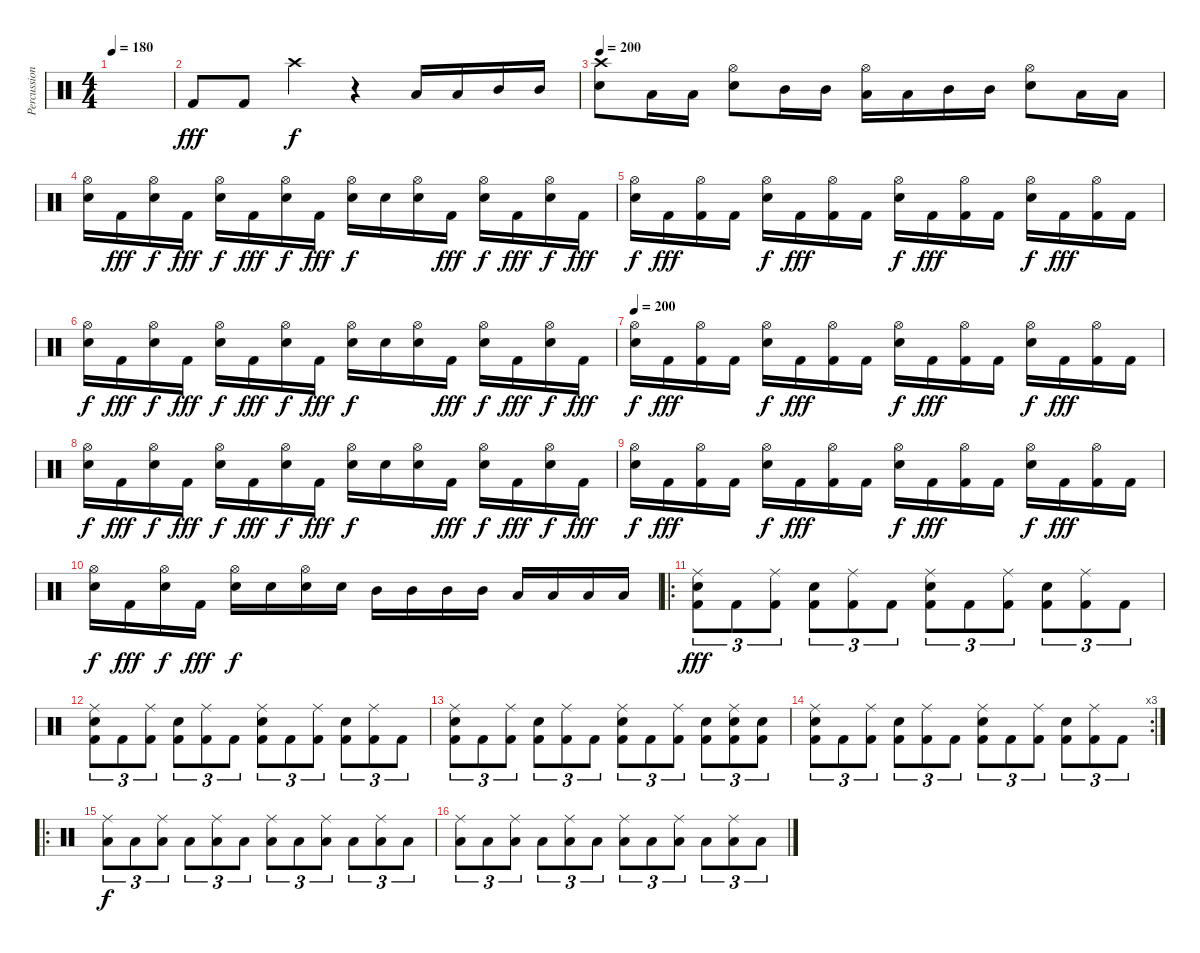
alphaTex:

\track ("Percussion" "Percussion") {instrument percussion}
\staff {score}
\articulation defaults
\ts (4 4)
\tempo 180
\clef neutral
\ks c
|
"Kick (hit) 2".8{dy fff} "Kick (hit) 2".8 "Crash high (hit)".4{dy f} r.4 "Low Tom (hit)".16 "Low Tom (hit)".16 "Mid Tom (hit)".16 "Mid Tom (hit)".16 |
\tempo 200
("Crash high (hit)" "Electric Snare (hit)").8 "Low Tom (hit)".16 "Low Tom (hit)".16 ("Hi-Hat (open)" "Electric Snare (hit)").8 "Mid Tom (hit)".16 "Mid Tom (hit)".16 ("Hi-Hat (open)" "Low Tom (hit)").16 "Low Tom (hit)".16 "Mid Tom (hit)".16 "Mid Tom (hit)".16 ("Hi-Hat (open)" "Electric Snare (hit)").8 "Low Tom (hit)".16 "Low Tom (hit)".16 |
("Hi-Hat (open)" "Electric Snare (hit)").16 "Kick (hit) 2".16{dy fff} ("Hi-Hat (open)" "Electric Snare (hit)").16{dy f} "Kick (hit) 2".16{dy fff} ("Hi-Hat (open)" "Electric Snare (hit)").16{dy f} "Kick (hit) 2".16{dy fff} ("Hi-Hat (open)" "Electric Snare (hit)").16{dy f} "Kick (hit) 2".16{dy fff} ("Hi-Hat (open)" "Electric Snare (hit)").16{dy f} "Electric Snare (hit)".16 ("Hi-Hat (open)" "Electric Snare (hit)").16 "Kick (hit) 2".16{dy fff} ("Hi-Hat (open)" "Electric Snare (hit)").16{dy f} "Kick (hit) 2".16{dy fff} ("Hi-Hat (open)" "Electric Snare (hit)").16{dy f} "Kick (hit) 2".16{dy fff} |
("Hi-Hat (open)" "Electric Snare (hit)").16{dy f} "Kick (hit) 2".16{dy fff} ("Hi-Hat (open)" "Kick (hit) 2").16 "Kick (hit) 2".16 ("Hi-Hat (open)" "Electric Snare (hit)").16{dy f} "Kick (hit) 2".16{dy fff} ("Hi-Hat (open)" "Kick (hit) 2").16 "Kick (hit) 2".16 ("Hi-Hat (open)" "Electric Snare (hit)").16{dy f} "Kick (hit) 2".16{dy fff} ("Hi-Hat (open)" "Kick (hit) 2").16 "Kick (hit) 2".16 ("Hi-Hat (open)" "Electric Snare (hit)").16{dy f} "Kick (hit) 2".16{dy fff} ("Hi-Hat (open)" "Kick (hit) 2").16 "Kick (hit) 2".16 |
("Hi-Hat (open)" "Electric Snare (hit)").16{dy f} "Kick (hit) 2".16{dy fff} ("Hi-Hat (open)" "Electric Snare (hit)").16{dy f} "Kick (hit) 2".16{dy fff} ("Hi-Hat (open)" "Electric Snare (hit)").16{dy f} "Kick (hit) 2".16{dy fff} ("Hi-Hat (open)" "Electric Snare (hit)").16{dy f} "Kick (hit) 2".16{dy fff} ("Hi-Hat (open)" "Electric Snare (hit)").16{dy f} "Electric Snare (hit)".16 ("Hi-Hat (open)" "Electric Snare (hit)").16 "Kick (hit) 2".16{dy fff} ("Hi-Hat (open)" "Electric Snare (hit)").16{dy f} "Kick (hit) 2".16{dy fff} ("Hi-Hat (open)" "Electric Snare (hit)").16{dy f} "Kick (hit) 2".16{dy fff} |
\tempo 200
("Hi-Hat (open)" "Electric Snare (hit)").16{dy f} "Kick (hit) 2".16{dy fff} ("Hi-Hat (open)" "Kick (hit) 2").16 "Kick (hit) 2".16 ("Hi-Hat (open)" "Electric Snare (hit)").16{dy f} "Kick (hit) 2".16{dy fff} ("Hi-Hat (open)" "Kick (hit) 2").16 "Kick (hit) 2".16 ("Hi-Hat (open)" "Electric Snare (hit)").16{dy f} "Kick (hit) 2".16{dy fff} ("Hi-Hat (open)" "Kick (hit) 2").16 "Kick (hit) 2".16 ("Hi-Hat (open)" "Electric Snare (hit)").16{dy f} "Kick (hit) 2".16{dy fff} ("Hi-Hat (open)" "Kick (hit) 2").16 "Kick (hit) 2".16 |
("Hi-Hat (open)" "Electric Snare (hit)").16{dy f} "Kick (hit) 2".16{dy fff} ("Hi-Hat (open)" "Electric Snare (hit)").16{dy f} "Kick (hit) 2".16{dy fff} ("Hi-Hat (open)" "Electric Snare (hit)").16{dy f} "Kick (hit) 2".16{dy fff} ("Hi-Hat (open)" "Electric Snare (hit)").16{dy f} "Kick (hit) 2".16{dy fff} ("Hi-Hat (open)" "Electric Snare (hit)").16{dy f} "Electric Snare (hit)".16 ("Hi-Hat (open)" "Electric Snare (hit)").16 "Kick (hit) 2".16{dy fff} ("Hi-Hat (open)" "Electric Snare (hit)").16{dy f} "Kick (hit) 2".16{dy fff} ("Hi-Hat (open)" "Electric Snare (hit)").16{dy f} "Kick (hit) 2".16{dy fff} |
("Hi-Hat (open)" "Electric Snare (hit)").16{dy f} "Kick (hit) 2".16{dy fff} ("Hi-Hat (open)" "Kick (hit) 2").16 "Kick (hit) 2".16 ("Hi-Hat (open)" "Electric Snare (hit)").16{dy f} "Kick (hit) 2".16{dy fff} ("Hi-Hat (open)" "Kick (hit) 2").16 "Kick (hit) 2".16 ("Hi-Hat (open)" "Electric Snare (hit)").16{dy f} "Kick (hit) 2".16{dy fff} ("Hi-Hat (open)" "Kick (hit) 2").16 "Kick (hit) 2".16 ("Hi-Hat (open)" "Electric Snare (hit)").16{dy f} "Kick (hit) 2".16{dy fff} ("Hi-Hat (open)" "Kick (hit) 2").16 "Kick (hit) 2".16 |
("Hi-Hat (open)" "Electric Snare (hit)").16{dy f} "Kick (hit) 2".16{dy fff} ("Hi-Hat (open)" "Electric Snare (hit)").16{dy f} "Kick (hit) 2".16{dy fff} ("Hi-Hat (open)" "Electric Snare (hit)").16{dy f} "Electric Snare (hit)".16 ("Hi-Hat (open)" "Electric Snare (hit)").16 "Electric Snare (hit)".16 "Mid Tom (hit)".16 "Mid Tom (hit)".16 "Mid Tom (hit)".16 "Mid Tom (hit)".16 "Low Tom (hit)".16 "Low Tom (hit)".16 "Low Tom (hit)".16 "Low Tom (hit)".16 |
\ro
("Ride (middle)" "Electric Snare (hit)" "Kick (hit) 2").8{tu (3 2) dy fff} "Kick (hit) 2".8{tu (3 2)} ("Ride (middle)" "Kick (hit) 2").8{tu (3 2)} ("Electric Snare (hit)" "Kick (hit) 2").8{tu (3 2)} ("Ride (middle)" "Kick (hit) 2").8{tu (3 2)} "Kick (hit) 2".8{tu (3 2)} ("Ride (middle)" "Electric Snare (hit)" "Kick (hit) 2").8{tu (3 2)} "Kick (hit) 2".8{tu (3 2)} ("Ride (middle)" "Kick (hit) 2").8{tu (3 2)} ("Electric Snare (hit)" "Kick (hit) 2").8{tu (3 2)} ("Ride (middle)" "Kick (hit) 2").8{tu (3 2)} "Kick (hit) 2".8{tu (3 2)} |
("Ride (middle)" "Electric Snare (hit)" "Kick (hit) 2").8{tu (3 2)} "Kick (hit) 2".8{tu (3 2)} ("Ride (middle)" "Kick (hit) 2").8{tu (3 2)} ("Electric Snare (hit)" "Kick (hit) 2").8{tu (3 2)} ("Ride (middle)" "Kick (hit) 2").8{tu (3 2)} "Kick (hit) 2".8{tu (3 2)} ("Ride (middle)" "Electric Snare (hit)" "Kick (hit) 2").8{tu (3 2)} "Kick (hit) 2".8{tu (3 2)} ("Ride (middle)" "Kick (hit) 2").8{tu (3 2)} ("Electric Snare (hit)" "Kick (hit) 2").8{tu (3 2)} ("Ride (middle)" "Kick (hit) 2").8{tu (3 2)} "Kick (hit) 2".8{tu (3 2)} |
("Ride (middle)" "Electric Snare (hit)" "Kick (hit) 2").8{tu (3 2)} "Kick (hit) 2".8{tu (3 2)} ("Ride (middle)" "Kick (hit) 2").8{tu (3 2)} ("Electric Snare (hit)" "Kick (hit) 2").8{tu (3 2)} ("Ride (middle)" "Kick (hit) 2").8{tu (3 2)} "Kick (hit) 2".8{tu (3 2)} ("Ride (middle)" "Electric Snare (hit)" "Kick (hit) 2").8{tu (3 2)} "Kick (hit) 2".8{tu (3 2)} ("Ride (middle)" "Kick (hit) 2").8{tu (3 2)} ("Electric Snare (hit)" "Kick (hit) 2").8{tu (3 2)} ("Ride (middle)" "Electric Snare (hit)" "Kick (hit) 2").8{tu (3 2)} ("Electric Snare (hit)" "Kick (hit) 2").8{tu (3 2)} |
\rc 3
("Ride (middle)" "Electric Snare (hit)" "Kick (hit) 2").8{tu (3 2)} "Kick (hit) 2".8{tu (3 2)} ("Ride (middle)" "Kick (hit) 2").8{tu (3 2)} ("Electric Snare (hit)" "Kick (hit) 2").8{tu (3 2)} ("Ride (middle)" "Kick (hit) 2").8{tu (3 2)} "Kick (hit) 2".8{tu (3 2)} ("Ride (middle)" "Electric Snare (hit)" "Kick (hit) 2").8{tu (3 2)} "Kick (hit) 2".8{tu (3 2)} ("Ride (middle)" "Kick (hit) 2").8{tu (3 2)} ("Electric Snare (hit)" "Kick (hit) 2").8{tu (3 2)} ("Ride (middle)" "Kick (hit) 2").8{tu (3 2)} "Kick (hit) 2".8{tu (3 2)} |
\ro
("Ride (middle)" "Low Tom (hit)").8{tu (3 2) dy f} "Low Tom (hit)".8{tu (3 2)} ("Ride (middle)" "Low Tom (hit)").8{tu (3 2)} "Low Tom (hit)".8{tu (3 2)} ("Ride (middle)" "Low Tom (hit)").8{tu (3 2)} "Low Tom (hit)".8{tu (3 2)} ("Ride (middle)" "Low Tom (hit)").8{tu (3 2)} "Low Tom (hit)".8{tu (3 2)} ("Ride (middle)" "Low Tom (hit)").8{tu (3 2)} "Low Tom (hit)".8{tu (3 2)} ("Ride (middle)" "Low Tom (hit)").8{tu (3 2)} "Low Tom (hit)".8{tu (3 2)} |
("Ride (middle)" "Low Tom (hit)").8{tu (3 2)} "Low Tom (hit)".8{tu (3 2)} ("Ride (middle)" "Low Tom (hit)").8{tu (3 2)} "Low Tom (hit)".8{tu (3 2)} ("Ride (middle)" "Low Tom (hit)").8{tu (3 2)} "Low Tom (hit)".8{tu (3 2)} ("Ride (middle)" "Low Tom (hit)").8{tu (3 2)} "Low Tom (hit)".8{tu (3 2)} ("Ride (middle)" "Low Tom (hit)").8{tu (3 2)} "Low Tom (hit)".8{tu (3 2)} ("Ride (middle)" "Low Tom (hit)").8{tu (3 2)} "Low Tom (hit)".8{tu (3 2)}
